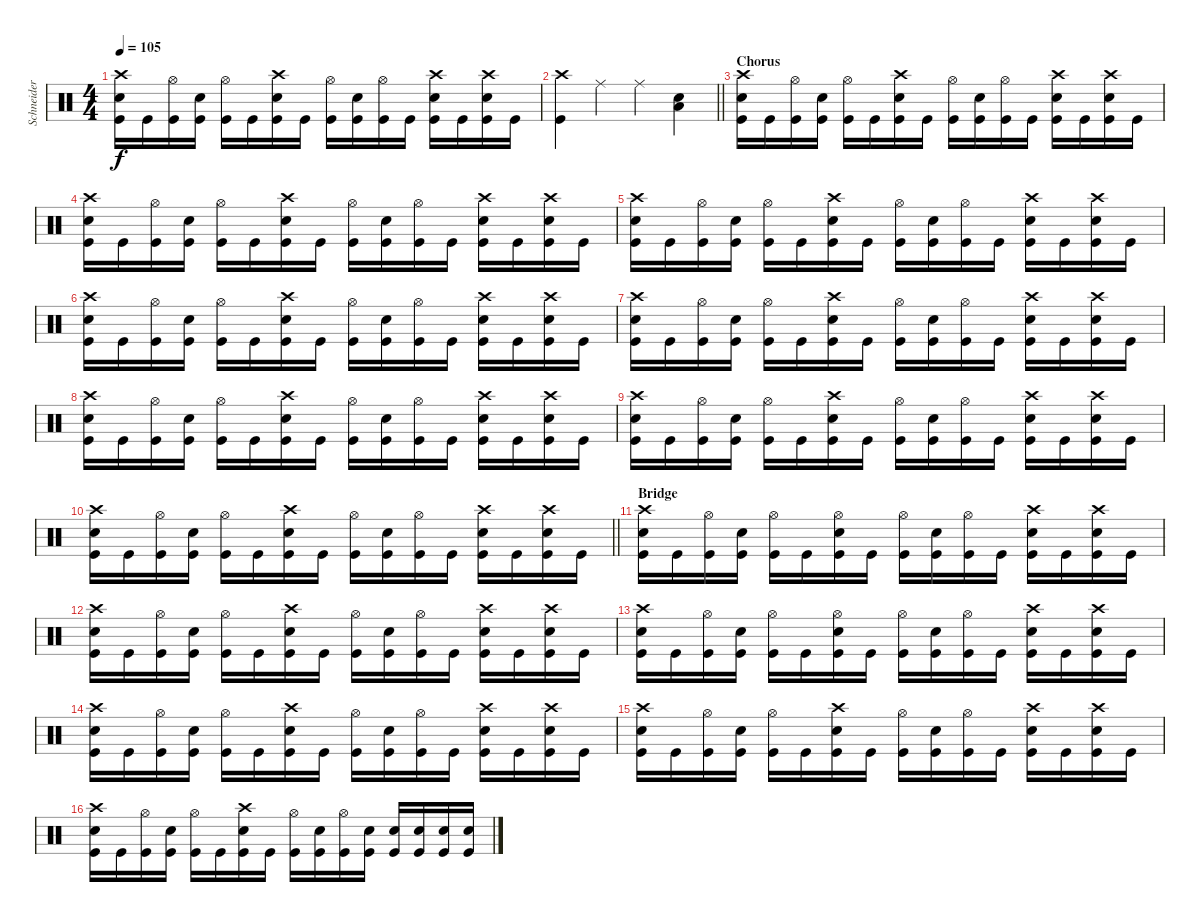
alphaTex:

\track ("Schneider" "Schneider") {instrument percussion}
\staff {score}
\articulation defaults
\ts (4 4)
\tempo 105
\clef neutral
\ks c
("Crash high (hit)" "Electric Snare (hit)" "Kick (hit)").16{dy f} "Kick (hit)".16 ("Hi-Hat (open)" "Kick (hit)").16 ("Electric Snare (hit)" "Kick (hit)").16 ("Hi-Hat (open)" "Kick (hit)").16 "Kick (hit)".16 ("Crash high (hit)" "Electric Snare (hit)" "Kick (hit)").16 "Kick (hit)".16 ("Hi-Hat (open)" "Kick (hit)").16 ("Electric Snare (hit)" "Kick (hit)").16 ("Hi-Hat (open)" "Kick (hit)").16 "Kick (hit)".16 ("Crash high (hit)" "Electric Snare (hit)" "Kick (hit)").16 "Kick (hit)".16 ("Crash high (hit)" "Electric Snare (hit)" "Kick (hit)").16 "Kick (hit)".16 |
\barLineRight lightlight
("Crash high (hit)" "Kick (hit)").4 "Ride (middle)".4 "Ride (middle)".4 ("Electric Snare (hit)" "Low Floor Tom (hit)").4 |
\section ("" "Chorus")
("Crash high (hit)" "Electric Snare (hit)" "Kick (hit)").16 "Kick (hit)".16 ("Hi-Hat (open)" "Kick (hit)").16 ("Electric Snare (hit)" "Kick (hit)").16 ("Hi-Hat (open)" "Kick (hit)").16 "Kick (hit)".16 ("Crash high (hit)" "Electric Snare (hit)" "Kick (hit)").16 "Kick (hit)".16 ("Hi-Hat (open)" "Kick (hit)").16 ("Electric Snare (hit)" "Kick (hit)").16 ("Hi-Hat (open)" "Kick (hit)").16 "Kick (hit)".16 ("Crash high (hit)" "Electric Snare (hit)" "Kick (hit)").16 "Kick (hit)".16 ("Crash high (hit)" "Electric Snare (hit)" "Kick (hit)").16 "Kick (hit)".16 |
("Crash high (hit)" "Electric Snare (hit)" "Kick (hit)").16 "Kick (hit)".16 ("Hi-Hat (open)" "Kick (hit)").16 ("Electric Snare (hit)" "Kick (hit)").16 ("Hi-Hat (open)" "Kick (hit)").16 "Kick (hit)".16 ("Crash high (hit)" "Electric Snare (hit)" "Kick (hit)").16 "Kick (hit)".16 ("Hi-Hat (open)" "Kick (hit)").16 ("Electric Snare (hit)" "Kick (hit)").16 ("Hi-Hat (open)" "Kick (hit)").16 "Kick (hit)".16 ("Crash high (hit)" "Electric Snare (hit)" "Kick (hit)").16 "Kick (hit)".16 ("Crash high (hit)" "Electric Snare (hit)" "Kick (hit)").16 "Kick (hit)".16 |
("Crash high (hit)" "Electric Snare (hit)" "Kick (hit)").16 "Kick (hit)".16 ("Hi-Hat (open)" "Kick (hit)").16 ("Electric Snare (hit)" "Kick (hit)").16 ("Hi-Hat (open)" "Kick (hit)").16 "Kick (hit)".16 ("Crash high (hit)" "Electric Snare (hit)" "Kick (hit)").16 "Kick (hit)".16 ("Hi-Hat (open)" "Kick (hit)").16 ("Electric Snare (hit)" "Kick (hit)").16 ("Hi-Hat (open)" "Kick (hit)").16 "Kick (hit)".16 ("Crash high (hit)" "Electric Snare (hit)" "Kick (hit)").16 "Kick (hit)".16 ("Crash high (hit)" "Electric Snare (hit)" "Kick (hit)").16 "Kick (hit)".16 |
("Crash high (hit)" "Electric Snare (hit)" "Kick (hit)").16 "Kick (hit)".16 ("Hi-Hat (open)" "Kick (hit)").16 ("Electric Snare (hit)" "Kick (hit)").16 ("Hi-Hat (open)" "Kick (hit)").16 "Kick (hit)".16 ("Crash high (hit)" "Electric Snare (hit)" "Kick (hit)").16 "Kick (hit)".16 ("Hi-Hat (open)" "Kick (hit)").16 ("Electric Snare (hit)" "Kick (hit)").16 ("Hi-Hat (open)" "Kick (hit)").16 "Kick (hit)".16 ("Crash high (hit)" "Electric Snare (hit)" "Kick (hit)").16 "Kick (hit)".16 ("Crash high (hit)" "Electric Snare (hit)" "Kick (hit)").16 "Kick (hit)".16 |
("Crash high (hit)" "Electric Snare (hit)" "Kick (hit)").16 "Kick (hit)".16 ("Hi-Hat (open)" "Kick (hit)").16 ("Electric Snare (hit)" "Kick (hit)").16 ("Hi-Hat (open)" "Kick (hit)").16 "Kick (hit)".16 ("Crash high (hit)" "Electric Snare (hit)" "Kick (hit)").16 "Kick (hit)".16 ("Hi-Hat (open)" "Kick (hit)").16 ("Electric Snare (hit)" "Kick (hit)").16 ("Hi-Hat (open)" "Kick (hit)").16 "Kick (hit)".16 ("Crash high (hit)" "Electric Snare (hit)" "Kick (hit)").16 "Kick (hit)".16 ("Crash high (hit)" "Electric Snare (hit)" "Kick (hit)").16 "Kick (hit)".16 |
("Crash high (hit)" "Electric Snare (hit)" "Kick (hit)").16 "Kick (hit)".16 ("Hi-Hat (open)" "Kick (hit)").16 ("Electric Snare (hit)" "Kick (hit)").16 ("Hi-Hat (open)" "Kick (hit)").16 "Kick (hit)".16 ("Crash high (hit)" "Electric Snare (hit)" "Kick (hit)").16 "Kick (hit)".16 ("Hi-Hat (open)" "Kick (hit)").16 ("Electric Snare (hit)" "Kick (hit)").16 ("Hi-Hat (open)" "Kick (hit)").16 "Kick (hit)".16 ("Crash high (hit)" "Electric Snare (hit)" "Kick (hit)").16 "Kick (hit)".16 ("Crash high (hit)" "Electric Snare (hit)" "Kick (hit)").16 "Kick (hit)".16 |
("Crash high (hit)" "Electric Snare (hit)" "Kick (hit)").16 "Kick (hit)".16 ("Hi-Hat (open)" "Kick (hit)").16 ("Electric Snare (hit)" "Kick (hit)").16 ("Hi-Hat (open)" "Kick (hit)").16 "Kick (hit)".16 ("Crash high (hit)" "Electric Snare (hit)" "Kick (hit)").16 "Kick (hit)".16 ("Hi-Hat (open)" "Kick (hit)").16 ("Electric Snare (hit)" "Kick (hit)").16 ("Hi-Hat (open)" "Kick (hit)").16 "Kick (hit)".16 ("Crash high (hit)" "Electric Snare (hit)" "Kick (hit)").16 "Kick (hit)".16 ("Crash high (hit)" "Electric Snare (hit)" "Kick (hit)").16 "Kick (hit)".16 |
\barLineRight lightlight
("Crash high (hit)" "Electric Snare (hit)" "Kick (hit)").16 "Kick (hit)".16 ("Hi-Hat (open)" "Kick (hit)").16 ("Electric Snare (hit)" "Kick (hit)").16 ("Hi-Hat (open)" "Kick (hit)").16 "Kick (hit)".16 ("Crash high (hit)" "Electric Snare (hit)" "Kick (hit)").16 "Kick (hit)".16 ("Hi-Hat (open)" "Kick (hit)").16 ("Electric Snare (hit)" "Kick (hit)").16 ("Hi-Hat (open)" "Kick (hit)").16 "Kick (hit)".16 ("Crash high (hit)" "Electric Snare (hit)" "Kick (hit)").16 "Kick (hit)".16 ("Crash high (hit)" "Electric Snare (hit)" "Kick (hit)").16 "Kick (hit)".16 |
\section ("" "Bridge")
("Crash high (hit)" "Electric Snare (hit)" "Kick (hit)").16 "Kick (hit)".16 ("Hi-Hat (open)" "Kick (hit)").16 ("Electric Snare (hit)" "Kick (hit)").16 ("Hi-Hat (open)" "Kick (hit)").16 "Kick (hit)".16 ("Hi-Hat (open)" "Electric Snare (hit)" "Kick (hit)").16 "Kick (hit)".16 ("Hi-Hat (open)" "Kick (hit)").16 ("Electric Snare (hit)" "Kick (hit)").16 ("Hi-Hat (open)" "Kick (hit)").16 "Kick (hit)".16 ("Crash high (hit)" "Electric Snare (hit)" "Kick (hit)").16 "Kick (hit)".16 ("Crash high (hit)" "Electric Snare (hit)" "Kick (hit)").16 "Kick (hit)".16 |
("Crash high (hit)" "Electric Snare (hit)" "Kick (hit)").16 "Kick (hit)".16 ("Hi-Hat (open)" "Kick (hit)").16 ("Electric Snare (hit)" "Kick (hit)").16 ("Hi-Hat (open)" "Kick (hit)").16 "Kick (hit)".16 ("Crash high (hit)" "Electric Snare (hit)" "Kick (hit)").16 "Kick (hit)".16 ("Hi-Hat (open)" "Kick (hit)").16 ("Electric Snare (hit)" "Kick (hit)").16 ("Hi-Hat (open)" "Kick (hit)").16 "Kick (hit)".16 ("Crash high (hit)" "Electric Snare (hit)" "Kick (hit)").16 "Kick (hit)".16 ("Crash high (hit)" "Electric Snare (hit)" "Kick (hit)").16 "Kick (hit)".16 |
("Crash high (hit)" "Electric Snare (hit)" "Kick (hit)").16 "Kick (hit)".16 ("Hi-Hat (open)" "Kick (hit)").16 ("Electric Snare (hit)" "Kick (hit)").16 ("Hi-Hat (open)" "Kick (hit)").16 "Kick (hit)".16 ("Hi-Hat (open)" "Electric Snare (hit)" "Kick (hit)").16 "Kick (hit)".16 ("Hi-Hat (open)" "Kick (hit)").16 ("Electric Snare (hit)" "Kick (hit)").16 ("Hi-Hat (open)" "Kick (hit)").16 "Kick (hit)".16 ("Crash high (hit)" "Electric Snare (hit)" "Kick (hit)").16 "Kick (hit)".16 ("Crash high (hit)" "Electric Snare (hit)" "Kick (hit)").16 "Kick (hit)".16 |
("Crash high (hit)" "Electric Snare (hit)" "Kick (hit)").16 "Kick (hit)".16 ("Hi-Hat (open)" "Kick (hit)").16 ("Electric Snare (hit)" "Kick (hit)").16 ("Hi-Hat (open)" "Kick (hit)").16 "Kick (hit)".16 ("Crash high (hit)" "Electric Snare (hit)" "Kick (hit)").16 "Kick (hit)".16 ("Hi-Hat (open)" "Kick (hit)").16 ("Electric Snare (hit)" "Kick (hit)").16 ("Hi-Hat (open)" "Kick (hit)").16 "Kick (hit)".16 ("Crash high (hit)" "Electric Snare (hit)" "Kick (hit)").16 "Kick (hit)".16 ("Crash high (hit)" "Electric Snare (hit)" "Kick (hit)").16 "Kick (hit)".16 |
("Crash high (hit)" "Electric Snare (hit)" "Kick (hit)").16 "Kick (hit)".16 ("Hi-Hat (open)" "Kick (hit)").16 ("Electric Snare (hit)" "Kick (hit)").16 ("Hi-Hat (open)" "Kick (hit)").16 "Kick (hit)".16 ("Crash high (hit)" "Electric Snare (hit)" "Kick (hit)").16 "Kick (hit)".16 ("Hi-Hat (open)" "Kick (hit)").16 ("Electric Snare (hit)" "Kick (hit)").16 ("Hi-Hat (open)" "Kick (hit)").16 "Kick (hit)".16 ("Crash high (hit)" "Electric Snare (hit)" "Kick (hit)").16 "Kick (hit)".16 ("Crash high (hit)" "Electric Snare (hit)" "Kick (hit)").16 "Kick (hit)".16 |
("Crash high (hit)" "Electric Snare (hit)" "Kick (hit)").16 "Kick (hit)".16 ("Hi-Hat (open)" "Kick (hit)").16 ("Electric Snare (hit)" "Kick (hit)").16 ("Hi-Hat (open)" "Kick (hit)").16 "Kick (hit)".16 ("Crash high (hit)" "Electric Snare (hit)" "Kick (hit)").16 "Kick (hit)".16 ("Hi-Hat (open)" "Kick (hit)").16 ("Electric Snare (hit)" "Kick (hit)").16 ("Hi-Hat (open)" "Kick (hit)").16 ("Electric Snare (hit)" "Kick (hit)").16 ("Electric Snare (hit)" "Kick (hit)").16 ("Electric Snare (hit)" "Kick (hit)").16 ("Electric Snare (hit)" "Kick (hit)").16 ("Electric Snare (hit)" "Kick (hit)").16
